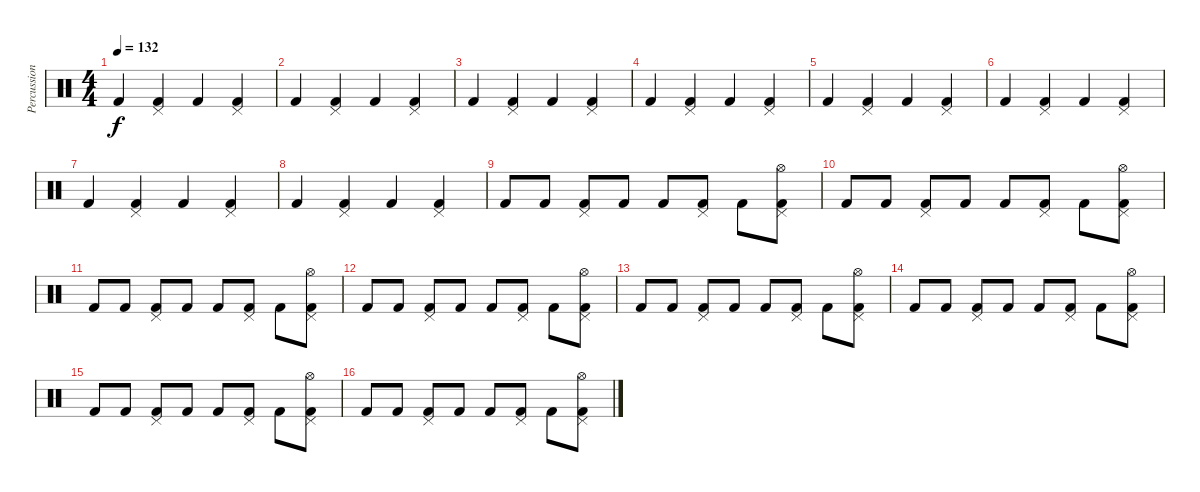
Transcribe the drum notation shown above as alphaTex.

\track ("Percussion" "Percussion") {instrument percussion}
\staff {score}
\articulation defaults
\ts (4 4)
\tempo 132
\clef neutral
\ks c "Kick (hit) 2".4{dy f}
("Kick (hit) 2" "Pedal Hi-Hat (hit)").4 "Kick (hit) 2".4 ("Kick (hit) 2" "Pedal Hi-Hat (hit)").4 |
"Kick (hit) 2".4 ("Kick (hit) 2" "Pedal Hi-Hat (hit)").4 "Kick (hit) 2".4 ("Kick (hit) 2" "Pedal Hi-Hat (hit)").4 |
"Kick (hit) 2".4 ("Kick (hit) 2" "Pedal Hi-Hat (hit)").4 "Kick (hit) 2".4 ("Kick (hit) 2" "Pedal Hi-Hat (hit)").4 |
"Kick (hit) 2".4 ("Kick (hit) 2" "Pedal Hi-Hat (hit)").4 "Kick (hit) 2".4 ("Kick (hit) 2" "Pedal Hi-Hat (hit)").4 |
"Kick (hit) 2".4 ("Kick (hit) 2" "Pedal Hi-Hat (hit)").4 "Kick (hit) 2".4 ("Kick (hit) 2" "Pedal Hi-Hat (hit)").4 |
"Kick (hit) 2".4 ("Kick (hit) 2" "Pedal Hi-Hat (hit)").4 "Kick (hit) 2".4 ("Kick (hit) 2" "Pedal Hi-Hat (hit)").4 |
"Kick (hit) 2".4 ("Kick (hit) 2" "Pedal Hi-Hat (hit)").4 "Kick (hit) 2".4 ("Kick (hit) 2" "Pedal Hi-Hat (hit)").4 |
"Kick (hit) 2".4 ("Kick (hit) 2" "Pedal Hi-Hat (hit)").4 "Kick (hit) 2".4 ("Kick (hit) 2" "Pedal Hi-Hat (hit)").4 |
"Kick (hit) 2".8 "Kick (hit) 2".8 ("Kick (hit) 2" "Pedal Hi-Hat (hit)").8 "Kick (hit) 2".8 "Kick (hit) 2".8 ("Kick (hit) 2" "Pedal Hi-Hat (hit)").8 "Kick (hit) 2".8 ("Kick (hit) 2" "Pedal Hi-Hat (hit)" "Hi-Hat (open)").8 |
"Kick (hit) 2".8 "Kick (hit) 2".8 ("Kick (hit) 2" "Pedal Hi-Hat (hit)").8 "Kick (hit) 2".8 "Kick (hit) 2".8 ("Kick (hit) 2" "Pedal Hi-Hat (hit)").8 "Kick (hit) 2".8 ("Kick (hit) 2" "Pedal Hi-Hat (hit)" "Hi-Hat (open)").8 |
"Kick (hit) 2".8 "Kick (hit) 2".8 ("Kick (hit) 2" "Pedal Hi-Hat (hit)").8 "Kick (hit) 2".8 "Kick (hit) 2".8 ("Kick (hit) 2" "Pedal Hi-Hat (hit)").8 "Kick (hit) 2".8 ("Kick (hit) 2" "Pedal Hi-Hat (hit)" "Hi-Hat (open)").8 |
"Kick (hit) 2".8 "Kick (hit) 2".8 ("Kick (hit) 2" "Pedal Hi-Hat (hit)").8 "Kick (hit) 2".8 "Kick (hit) 2".8 ("Kick (hit) 2" "Pedal Hi-Hat (hit)").8 "Kick (hit) 2".8 ("Kick (hit) 2" "Pedal Hi-Hat (hit)" "Hi-Hat (open)").8 |
"Kick (hit) 2".8 "Kick (hit) 2".8 ("Kick (hit) 2" "Pedal Hi-Hat (hit)").8 "Kick (hit) 2".8 "Kick (hit) 2".8 ("Kick (hit) 2" "Pedal Hi-Hat (hit)").8 "Kick (hit) 2".8 ("Kick (hit) 2" "Pedal Hi-Hat (hit)" "Hi-Hat (open)").8 |
"Kick (hit) 2".8 "Kick (hit) 2".8 ("Kick (hit) 2" "Pedal Hi-Hat (hit)").8 "Kick (hit) 2".8 "Kick (hit) 2".8 ("Kick (hit) 2" "Pedal Hi-Hat (hit)").8 "Kick (hit) 2".8 ("Kick (hit) 2" "Pedal Hi-Hat (hit)" "Hi-Hat (open)").8 |
"Kick (hit) 2".8 "Kick (hit) 2".8 ("Kick (hit) 2" "Pedal Hi-Hat (hit)").8 "Kick (hit) 2".8 "Kick (hit) 2".8 ("Kick (hit) 2" "Pedal Hi-Hat (hit)").8 "Kick (hit) 2".8 ("Kick (hit) 2" "Pedal Hi-Hat (hit)" "Hi-Hat (open)").8 |
"Kick (hit) 2".8 "Kick (hit) 2".8 ("Kick (hit) 2" "Pedal Hi-Hat (hit)").8 "Kick (hit) 2".8 "Kick (hit) 2".8 ("Kick (hit) 2" "Pedal Hi-Hat (hit)").8 "Kick (hit) 2".8 ("Kick (hit) 2" "Pedal Hi-Hat (hit)" "Hi-Hat (open)").8
